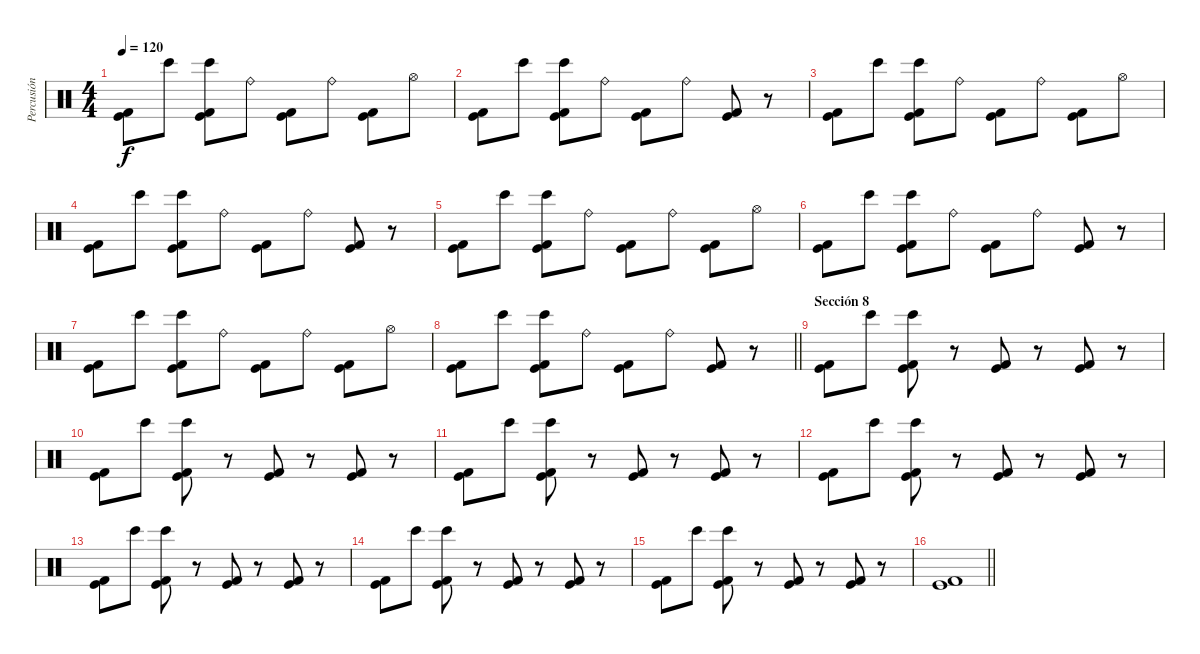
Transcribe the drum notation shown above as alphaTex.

\track ("Percusión 2" "Percusión ") {instrument percussion}
\staff {score}
\articulation defaults
\ts (4 4)
\tempo 120
\clef neutral
\ks c
("Kick (hit)" "Kick (hit) 2").8{dy f} "Bongo High (hit)".8 ("Kick (hit) 2" "Kick (hit)" "Bongo High (hit)").8 "Ride (bell)".8 ("Kick (hit) 2" "Kick (hit)").8 "Ride (bell)".8 ("Kick (hit) 2" "Kick (hit)").8 "Hi-Hat (open)".8 |
("Kick (hit)" "Kick (hit) 2").8 "Bongo High (hit)".8 ("Kick (hit) 2" "Kick (hit)" "Bongo High (hit)").8 "Ride (bell)".8 ("Kick (hit) 2" "Kick (hit)").8 "Ride (bell)".8 ("Kick (hit) 2" "Kick (hit)").8 r.8 |
("Kick (hit)" "Kick (hit) 2").8 "Bongo High (hit)".8 ("Kick (hit) 2" "Kick (hit)" "Bongo High (hit)").8 "Ride (bell)".8 ("Kick (hit) 2" "Kick (hit)").8 "Ride (bell)".8 ("Kick (hit) 2" "Kick (hit)").8 "Hi-Hat (open)".8 |
("Kick (hit)" "Kick (hit) 2").8 "Bongo High (hit)".8 ("Kick (hit) 2" "Kick (hit)" "Bongo High (hit)").8 "Ride (bell)".8 ("Kick (hit) 2" "Kick (hit)").8 "Ride (bell)".8 ("Kick (hit) 2" "Kick (hit)").8 r.8 |
("Kick (hit)" "Kick (hit) 2").8 "Bongo High (hit)".8 ("Kick (hit) 2" "Kick (hit)" "Bongo High (hit)").8 "Ride (bell)".8 ("Kick (hit) 2" "Kick (hit)").8 "Ride (bell)".8 ("Kick (hit) 2" "Kick (hit)").8 "Hi-Hat (open)".8 |
("Kick (hit)" "Kick (hit) 2").8 "Bongo High (hit)".8 ("Kick (hit) 2" "Kick (hit)" "Bongo High (hit)").8 "Ride (bell)".8 ("Kick (hit) 2" "Kick (hit)").8 "Ride (bell)".8 ("Kick (hit) 2" "Kick (hit)").8 r.8 |
("Kick (hit)" "Kick (hit) 2").8 "Bongo High (hit)".8 ("Kick (hit) 2" "Kick (hit)" "Bongo High (hit)").8 "Ride (bell)".8 ("Kick (hit) 2" "Kick (hit)").8 "Ride (bell)".8 ("Kick (hit) 2" "Kick (hit)").8 "Hi-Hat (open)".8 |
\barLineRight lightlight
("Kick (hit)" "Kick (hit) 2").8 "Bongo High (hit)".8 ("Kick (hit) 2" "Kick (hit)" "Bongo High (hit)").8 "Ride (bell)".8 ("Kick (hit) 2" "Kick (hit)").8 "Ride (bell)".8 ("Kick (hit) 2" "Kick (hit)").8 r.8 |
\section ("" "Sección 8")
("Kick (hit)" "Kick (hit) 2").8 "Bongo High (hit)".8 ("Kick (hit) 2" "Kick (hit)" "Bongo High (hit)").8 r.8 ("Kick (hit) 2" "Kick (hit)").8 r.8 ("Kick (hit) 2" "Kick (hit)").8 r.8 |
("Kick (hit)" "Kick (hit) 2").8 "Bongo High (hit)".8 ("Kick (hit) 2" "Kick (hit)" "Bongo High (hit)").8 r.8 ("Kick (hit) 2" "Kick (hit)").8 r.8 ("Kick (hit) 2" "Kick (hit)").8 r.8 |
("Kick (hit)" "Kick (hit) 2").8 "Bongo High (hit)".8 ("Kick (hit) 2" "Kick (hit)" "Bongo High (hit)").8 r.8 ("Kick (hit) 2" "Kick (hit)").8 r.8 ("Kick (hit) 2" "Kick (hit)").8 r.8 |
("Kick (hit)" "Kick (hit) 2").8 "Bongo High (hit)".8 ("Kick (hit) 2" "Kick (hit)" "Bongo High (hit)").8 r.8 ("Kick (hit) 2" "Kick (hit)").8 r.8 ("Kick (hit) 2" "Kick (hit)").8 r.8 |
("Kick (hit)" "Kick (hit) 2").8 "Bongo High (hit)".8 ("Kick (hit) 2" "Kick (hit)" "Bongo High (hit)").8 r.8 ("Kick (hit) 2" "Kick (hit)").8 r.8 ("Kick (hit) 2" "Kick (hit)").8 r.8 |
("Kick (hit)" "Kick (hit) 2").8 "Bongo High (hit)".8 ("Kick (hit) 2" "Kick (hit)" "Bongo High (hit)").8 r.8 ("Kick (hit) 2" "Kick (hit)").8 r.8 ("Kick (hit) 2" "Kick (hit)").8 r.8 |
("Kick (hit)" "Kick (hit) 2").8 "Bongo High (hit)".8 ("Kick (hit) 2" "Kick (hit)" "Bongo High (hit)").8 r.8 ("Kick (hit) 2" "Kick (hit)").8 r.8 ("Kick (hit) 2" "Kick (hit)").8 r.8 |
\barLineRight lightlight
("Kick (hit)" "Kick (hit) 2").1
